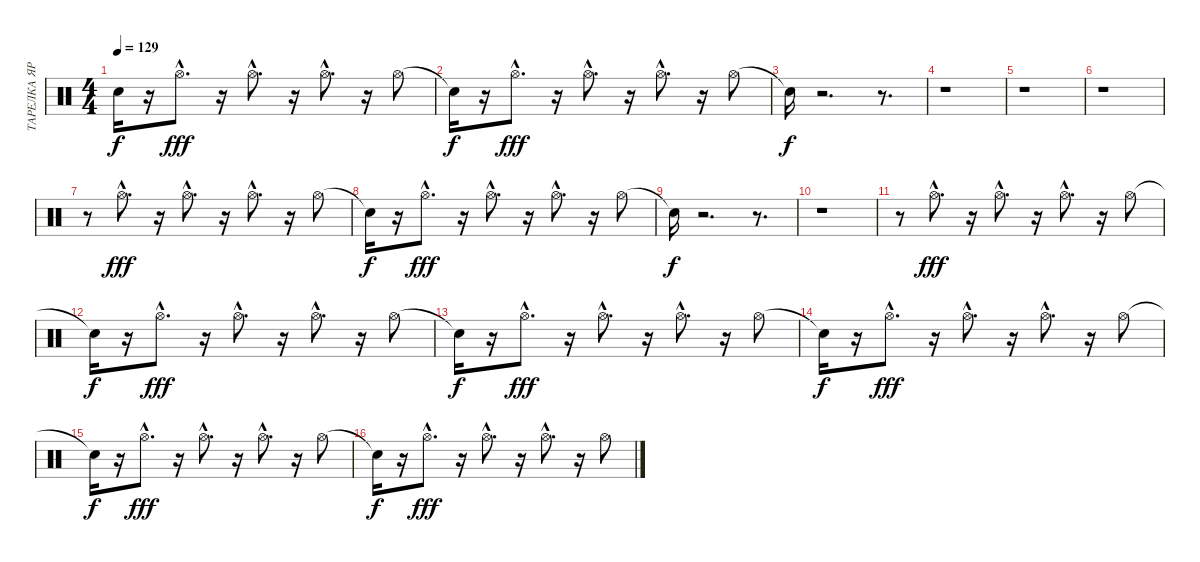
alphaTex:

\track ("ТАРЕЛКА ЯРКАЯ" "ТАРЕЛКА ЯР") {instrument percussion}
\staff {score}
\articulation defaults
\ts (4 4)
\tempo 129
\clef neutral
\ks c "Snare (hit)"{t}.16{dy f}
r.16 "Hi-Hat (open)"{hac}.8{d dy fff} r.16 "Hi-Hat (open)"{hac}.8{d} r.16 "Hi-Hat (open)"{hac}.8{d} r.16 "Hi-Hat (open)".8 |
"Snare (hit)"{t}.16{dy f} r.16 "Hi-Hat (open)"{hac}.8{d dy fff} r.16 "Hi-Hat (open)"{hac}.8{d} r.16 "Hi-Hat (open)"{hac}.8{d} r.16 "Hi-Hat (open)".8 |
"Snare (hit)"{t}.16{dy f} r.2{d} r.8{d} |
r.1 |
r.1 |
r.1 |
r.8 "Hi-Hat (open)"{hac}.8{d dy fff} r.16 "Hi-Hat (open)"{hac}.8{d} r.16 "Hi-Hat (open)"{hac}.8{d} r.16 "Hi-Hat (open)".8 |
"Snare (hit)"{t}.16{dy f} r.16 "Hi-Hat (open)"{hac}.8{d dy fff} r.16 "Hi-Hat (open)"{hac}.8{d} r.16 "Hi-Hat (open)"{hac}.8{d} r.16 "Hi-Hat (open)".8 |
"Snare (hit)"{t}.16{dy f} r.2{d} r.8{d} |
r.1 |
r.8 "Hi-Hat (open)"{hac}.8{d dy fff} r.16 "Hi-Hat (open)"{hac}.8{d} r.16 "Hi-Hat (open)"{hac}.8{d} r.16 "Hi-Hat (open)".8 |
"Snare (hit)"{t}.16{dy f} r.16 "Hi-Hat (open)"{hac}.8{d dy fff} r.16 "Hi-Hat (open)"{hac}.8{d} r.16 "Hi-Hat (open)"{hac}.8{d} r.16 "Hi-Hat (open)".8 |
"Snare (hit)"{t}.16{dy f} r.16 "Hi-Hat (open)"{hac}.8{d dy fff} r.16 "Hi-Hat (open)"{hac}.8{d} r.16 "Hi-Hat (open)"{hac}.8{d} r.16 "Hi-Hat (open)".8 |
"Snare (hit)"{t}.16{dy f} r.16 "Hi-Hat (open)"{hac}.8{d dy fff} r.16 "Hi-Hat (open)"{hac}.8{d} r.16 "Hi-Hat (open)"{hac}.8{d} r.16 "Hi-Hat (open)".8 |
"Snare (hit)"{t}.16{dy f} r.16 "Hi-Hat (open)"{hac}.8{d dy fff} r.16 "Hi-Hat (open)"{hac}.8{d} r.16 "Hi-Hat (open)"{hac}.8{d} r.16 "Hi-Hat (open)".8 |
"Snare (hit)"{t}.16{dy f} r.16 "Hi-Hat (open)"{hac}.8{d dy fff} r.16 "Hi-Hat (open)"{hac}.8{d} r.16 "Hi-Hat (open)"{hac}.8{d} r.16 "Hi-Hat (open)".8
